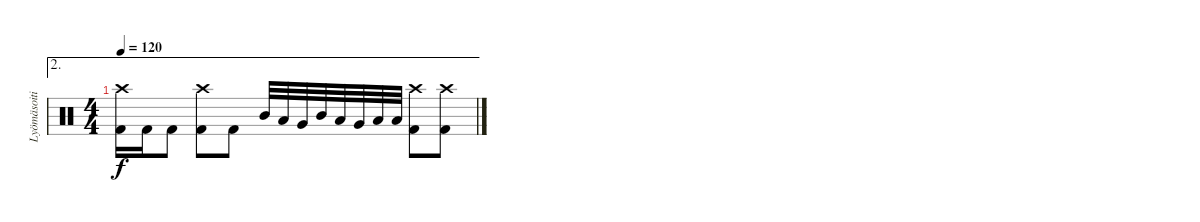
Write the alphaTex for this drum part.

\track ("Lyömäsoitin" "Lyömäsoiti") {instrument percussion}
\staff {score}
\articulation defaults
\ae 2
\ts (4 4)
\tempo 120
\clef neutral
\ks c
("Crash high (hit)" "Kick (hit) 2").16{dy f} "Kick (hit) 2".16 "Kick (hit) 2".8 ("Crash high (hit)" "Kick (hit) 2").8 "Kick (hit) 2".8 "Mid Tom (hit)".32 "Low Tom (hit)".32 "Very Low Tom (hit)".32 "Mid Tom (hit)".32 "Low Tom (hit)".32 "Very Low Tom (hit)".32 "Low Floor Tom (hit)".32 "Low Floor Tom (hit)".32 ("Crash high (hit)" "Kick (hit) 2").8 ("Crash high (hit)" "Kick (hit) 2").8
